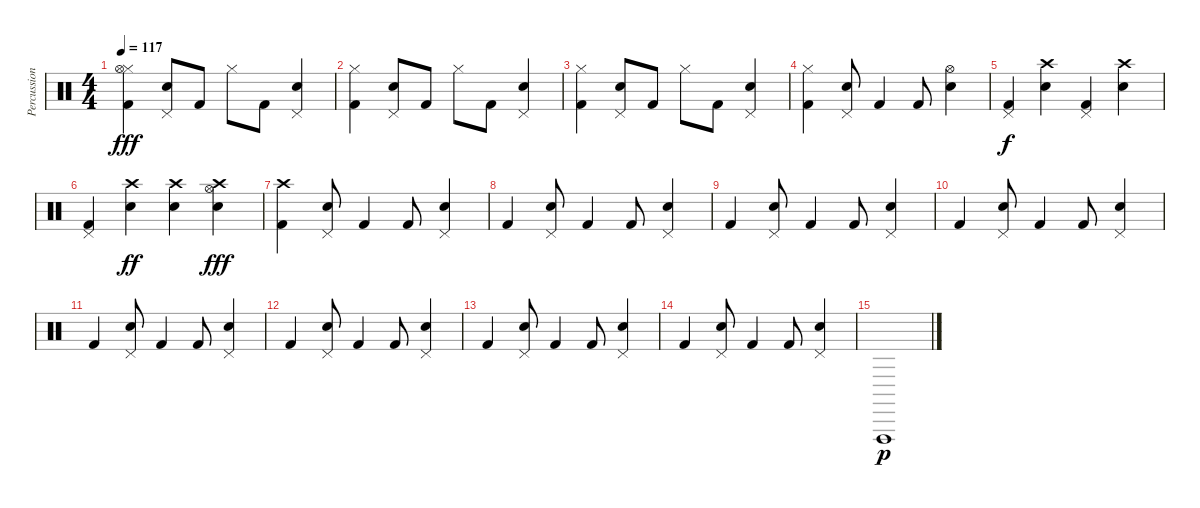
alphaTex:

\track ("Percussion" "Percussion") {instrument percussion}
\staff {score}
\articulation defaults
\ts (4 4)
\tempo 117
\clef neutral
\ks c
("Hi-Hat (closed)" "Kick (hit) 2" "Hi-Hat (open)").4{dy fff} ("Pedal Hi-Hat (hit)" "Electric Snare (hit)").8 "Kick (hit) 2".8 "Hi-Hat (closed)".8 "Kick (hit) 2".8 ("Pedal Hi-Hat (hit)" "Electric Snare (hit)").4 |
("Hi-Hat (closed)" "Kick (hit) 2").4 ("Pedal Hi-Hat (hit)" "Electric Snare (hit)").8 "Kick (hit) 2".8 "Hi-Hat (closed)".8 "Kick (hit) 2".8 ("Pedal Hi-Hat (hit)" "Electric Snare (hit)").4 |
("Hi-Hat (closed)" "Kick (hit) 2").4 ("Pedal Hi-Hat (hit)" "Electric Snare (hit)").8 "Kick (hit) 2".8 "Hi-Hat (closed)".8 "Kick (hit) 2".8 ("Pedal Hi-Hat (hit)" "Electric Snare (hit)").4 |
("Hi-Hat (closed)" "Kick (hit) 2").4 ("Pedal Hi-Hat (hit)" "Electric Snare (hit)").8 "Kick (hit) 2".4 "Kick (hit) 2".8 ("Hi-Hat (open)" "Electric Snare (hit)").4 |
("Pedal Hi-Hat (hit)" "Kick (hit) 2").4{dy f} ("Crash high (hit)" "Electric Snare (hit)").4 ("Pedal Hi-Hat (hit)" "Kick (hit) 2").4 ("Crash high (hit)" "Electric Snare (hit)").4 |
("Pedal Hi-Hat (hit)" "Kick (hit) 2").4 ("Crash high (hit)" "Electric Snare (hit)").4{dy ff} ("Crash high (hit)" "Electric Snare (hit)").4 ("Crash high (hit)" "Hi-Hat (open)" "Electric Snare (hit)").4{dy fff} |
("Crash high (hit)" "Kick (hit) 2").4 ("Pedal Hi-Hat (hit)" "Electric Snare (hit)").8 "Kick (hit) 2".4 "Kick (hit) 2".8 ("Pedal Hi-Hat (hit)" "Electric Snare (hit)").4 |
"Kick (hit) 2".4 ("Pedal Hi-Hat (hit)" "Electric Snare (hit)").8 "Kick (hit) 2".4 "Kick (hit) 2".8 ("Pedal Hi-Hat (hit)" "Electric Snare (hit)").4 |
"Kick (hit) 2".4 ("Pedal Hi-Hat (hit)" "Electric Snare (hit)").8 "Kick (hit) 2".4 "Kick (hit) 2".8 ("Pedal Hi-Hat (hit)" "Electric Snare (hit)").4 |
"Kick (hit) 2".4 ("Pedal Hi-Hat (hit)" "Electric Snare (hit)").8 "Kick (hit) 2".4 "Kick (hit) 2".8 ("Pedal Hi-Hat (hit)" "Electric Snare (hit)").4 |
"Kick (hit) 2".4 ("Pedal Hi-Hat (hit)" "Electric Snare (hit)").8 "Kick (hit) 2".4 "Kick (hit) 2".8 ("Pedal Hi-Hat (hit)" "Electric Snare (hit)").4 |
"Kick (hit) 2".4 ("Pedal Hi-Hat (hit)" "Electric Snare (hit)").8 "Kick (hit) 2".4 "Kick (hit) 2".8 ("Pedal Hi-Hat (hit)" "Electric Snare (hit)").4 |
"Kick (hit) 2".4 ("Pedal Hi-Hat (hit)" "Electric Snare (hit)").8 "Kick (hit) 2".4 "Kick (hit) 2".8 ("Pedal Hi-Hat (hit)" "Electric Snare (hit)").4 |
"Kick (hit) 2".4 ("Pedal Hi-Hat (hit)" "Electric Snare (hit)").8 "Kick (hit) 2".4 "Kick (hit) 2".8 ("Pedal Hi-Hat (hit)" "Electric Snare (hit)").4 |
"Vibraslap (hit)".1{dy p}
